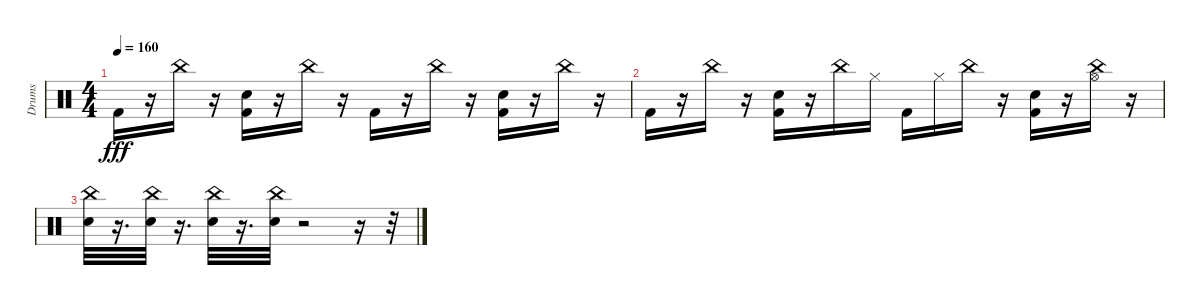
\track ("Drums" "Drums") {instrument percussion}
\staff {score}
\articulation defaults
\ts (4 4)
\tempo 160
\clef neutral
\ks c "Kick (hit) 2".16{dy fff}
r.16 "China (hit)".16 r.16 ("Kick (hit) 2" "Electric Snare (hit)").16 r.16 "China (hit)".16 r.16 "Kick (hit) 2".16 r.16 "China (hit)".16 r.16 ("Electric Snare (hit)" "Kick (hit) 2").16 r.16 "China (hit)".16 r.16 |
"Kick (hit) 2".16 r.16 "China (hit)".16 r.16 ("Electric Snare (hit)" "Kick (hit) 2").16 r.16 "China (hit)".16 "Hi-Hat (closed)".16 "Kick (hit) 2".16 "Hi-Hat (closed)".16 "China (hit)".16 r.16 ("Kick (hit) 2" "Electric Snare (hit)").16 r.16 ("Hi-Hat (open)" "China (hit)").16 r.16 |
("China (hit)" "Electric Snare (hit)").32 r.16{d} ("China (hit)" "Electric Snare (hit)").32 r.16{d} ("China (hit)" "Electric Snare (hit)").32 r.16{d} ("China (hit)" "Electric Snare (hit)").32 r.2 r.16 r.32
